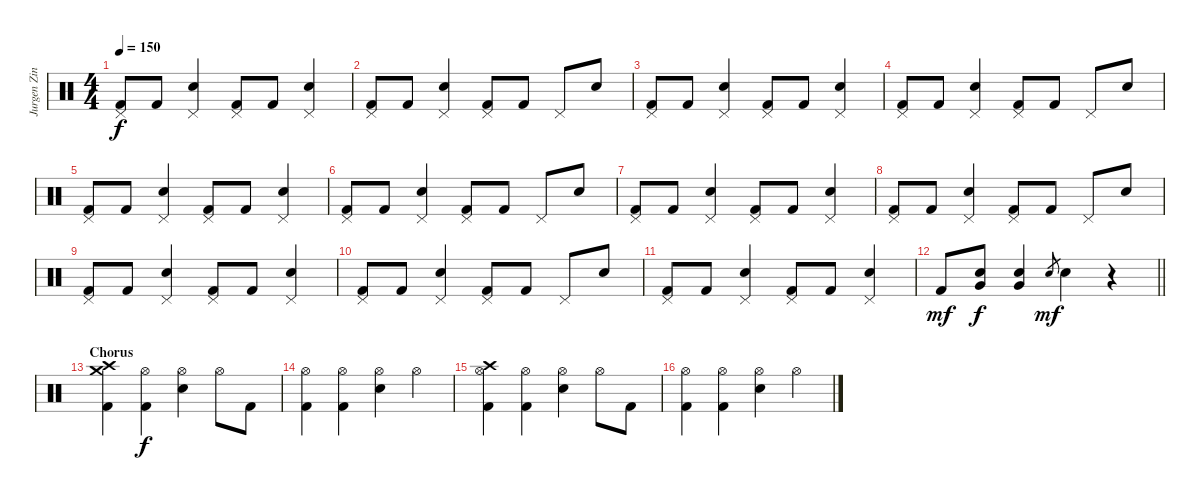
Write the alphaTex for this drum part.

\track ("Jurgen Zing" "Jurgen Zin") {instrument percussion}
\staff {score}
\articulation defaults
\ts (4 4)
\tempo 150
\clef neutral
\ks c
("Pedal Hi-Hat (hit)" "Kick (hit) 2").8{dy f} "Kick (hit) 2".8 ("Pedal Hi-Hat (hit)" "Electric Snare (hit)").4 ("Pedal Hi-Hat (hit)" "Kick (hit) 2").8 "Kick (hit) 2".8 ("Pedal Hi-Hat (hit)" "Electric Snare (hit)").4 |
("Pedal Hi-Hat (hit)" "Kick (hit) 2").8 "Kick (hit) 2".8 ("Pedal Hi-Hat (hit)" "Electric Snare (hit)").4 ("Pedal Hi-Hat (hit)" "Kick (hit) 2").8 "Kick (hit) 2".8 "Pedal Hi-Hat (hit)".8 "Electric Snare (hit)".8 |
("Pedal Hi-Hat (hit)" "Kick (hit) 2").8 "Kick (hit) 2".8 ("Pedal Hi-Hat (hit)" "Electric Snare (hit)").4 ("Pedal Hi-Hat (hit)" "Kick (hit) 2").8 "Kick (hit) 2".8 ("Pedal Hi-Hat (hit)" "Electric Snare (hit)").4 |
("Pedal Hi-Hat (hit)" "Kick (hit) 2").8 "Kick (hit) 2".8 ("Pedal Hi-Hat (hit)" "Electric Snare (hit)").4 ("Pedal Hi-Hat (hit)" "Kick (hit) 2").8 "Kick (hit) 2".8 "Pedal Hi-Hat (hit)".8 "Electric Snare (hit)".8 |
("Pedal Hi-Hat (hit)" "Kick (hit) 2").8 "Kick (hit) 2".8 ("Pedal Hi-Hat (hit)" "Electric Snare (hit)").4 ("Pedal Hi-Hat (hit)" "Kick (hit) 2").8 "Kick (hit) 2".8 ("Pedal Hi-Hat (hit)" "Electric Snare (hit)").4 |
("Pedal Hi-Hat (hit)" "Kick (hit) 2").8 "Kick (hit) 2".8 ("Pedal Hi-Hat (hit)" "Electric Snare (hit)").4 ("Pedal Hi-Hat (hit)" "Kick (hit) 2").8 "Kick (hit) 2".8 "Pedal Hi-Hat (hit)".8 "Electric Snare (hit)".8 |
("Pedal Hi-Hat (hit)" "Kick (hit) 2").8 "Kick (hit) 2".8 ("Pedal Hi-Hat (hit)" "Electric Snare (hit)").4 ("Pedal Hi-Hat (hit)" "Kick (hit) 2").8 "Kick (hit) 2".8 ("Pedal Hi-Hat (hit)" "Electric Snare (hit)").4 |
("Pedal Hi-Hat (hit)" "Kick (hit) 2").8 "Kick (hit) 2".8 ("Pedal Hi-Hat (hit)" "Electric Snare (hit)").4 ("Pedal Hi-Hat (hit)" "Kick (hit) 2").8 "Kick (hit) 2".8 "Pedal Hi-Hat (hit)".8 "Electric Snare (hit)".8 |
("Pedal Hi-Hat (hit)" "Kick (hit) 2").8 "Kick (hit) 2".8 ("Pedal Hi-Hat (hit)" "Electric Snare (hit)").4 ("Pedal Hi-Hat (hit)" "Kick (hit) 2").8 "Kick (hit) 2".8 ("Pedal Hi-Hat (hit)" "Electric Snare (hit)").4 |
("Pedal Hi-Hat (hit)" "Kick (hit) 2").8 "Kick (hit) 2".8 ("Pedal Hi-Hat (hit)" "Electric Snare (hit)").4 ("Pedal Hi-Hat (hit)" "Kick (hit) 2").8 "Kick (hit) 2".8 "Pedal Hi-Hat (hit)".8 "Electric Snare (hit)".8 |
("Pedal Hi-Hat (hit)" "Kick (hit) 2").8 "Kick (hit) 2".8 ("Pedal Hi-Hat (hit)" "Electric Snare (hit)").4 ("Pedal Hi-Hat (hit)" "Kick (hit) 2").8 "Kick (hit) 2".8 ("Pedal Hi-Hat (hit)" "Electric Snare (hit)").4 |
\barLineRight lightlight "Kick (hit) 2".8{dy mf}
("Very Low Tom (hit)" "Electric Snare (hit)").8{dy f} ("Very Low Tom (hit)" "Electric Snare (hit)").4 "Electric Snare (hit)".8{gr dy mf} "Electric Snare (hit)".4 r.4 |
\section ("" "Chorus")
("Crash medium (hit)" "Crash high (hit)" "Kick (hit) 2").4 ("Hi-Hat (open)" "Kick (hit) 2").4{dy f} ("Hi-Hat (open)" "Electric Snare (hit)").4 "Hi-Hat (open)".8 "Kick (hit) 2".8 |
("Hi-Hat (open)" "Kick (hit) 2").4 ("Hi-Hat (open)" "Kick (hit) 2").4 ("Hi-Hat (open)" "Electric Snare (hit)").4 "Hi-Hat (open)".4 |
("Crash high (hit)" "Hi-Hat (open)" "Kick (hit) 2").4 ("Hi-Hat (open)" "Kick (hit) 2").4 ("Hi-Hat (open)" "Electric Snare (hit)").4 "Hi-Hat (open)".8 "Kick (hit) 2".8 |
("Hi-Hat (open)" "Kick (hit) 2").4 ("Hi-Hat (open)" "Kick (hit) 2").4 ("Hi-Hat (open)" "Electric Snare (hit)").4 "Hi-Hat (open)".4
